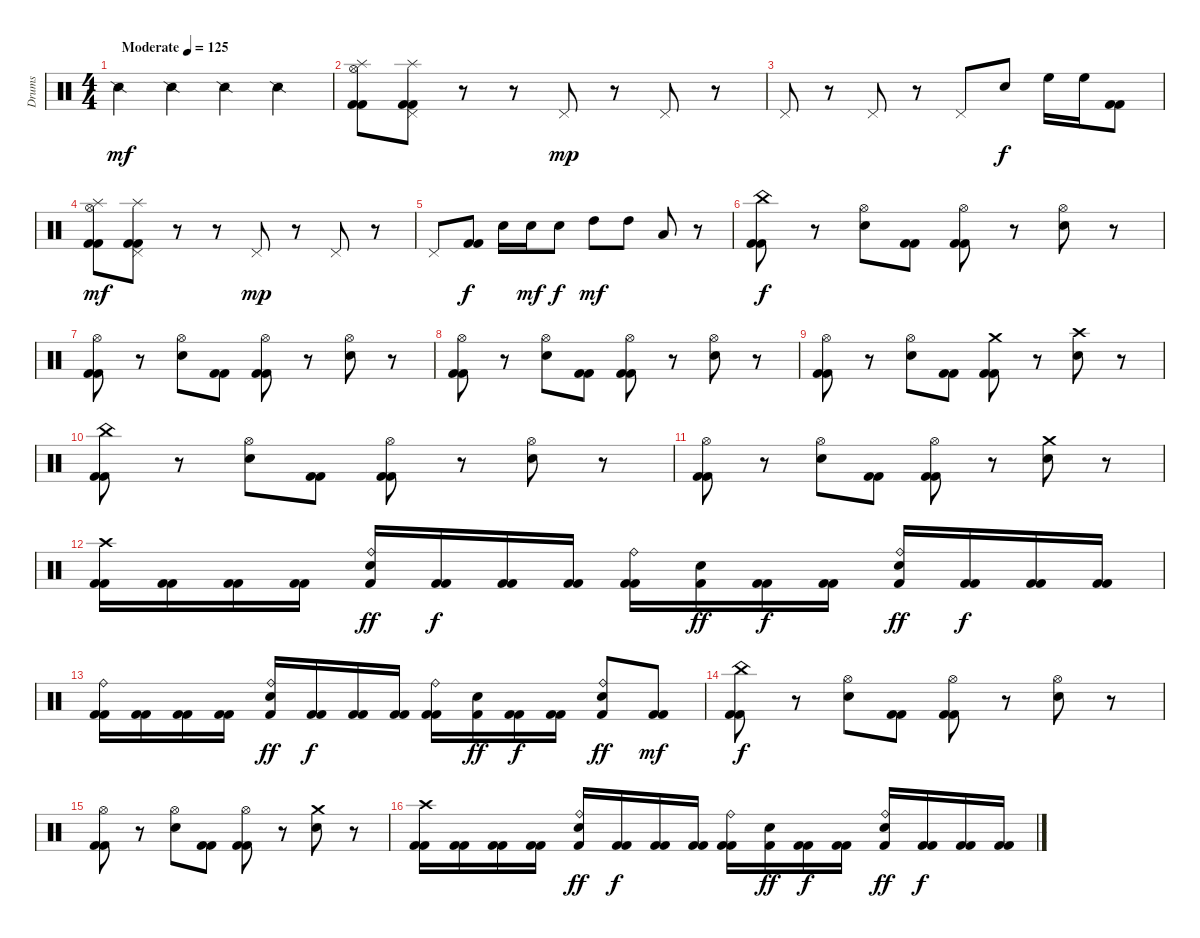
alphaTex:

\track ("Drums" "Drums") {instrument percussion}
\staff {score}
\articulation defaults
\ts (4 4)
\tempo (125 "Moderate")
\clef neutral
\ks c "Snare (side stick) 2".4{dy mf} "Snare (side stick) 2".4 "Snare (side stick) 2".4 "Snare (side stick) 2".4
|
("Hi-Hat (open)" "Splash (hit)" "Kick (hit) 2" "Kick (hit) 2").8 ("Pedal Hi-Hat (hit)" "Splash (hit)" "Kick (hit) 2" "Kick (hit) 2").8 r.8 r.8 "Pedal Hi-Hat (hit)".8{dy mp} r.8 "Pedal Hi-Hat (hit)".8 r.8 |
"Pedal Hi-Hat (hit)".8 r.8 "Pedal Hi-Hat (hit)".8 r.8 "Pedal Hi-Hat (hit)".8 "Snare (hit) 2".8{dy f} "High Floor Tom (hit)".16 "High Floor Tom (hit)".16 ("Kick (hit) 2" "Kick (hit) 2").8 |
("Hi-Hat (open)" "Splash (hit)" "Kick (hit) 2" "Kick (hit) 2").8{dy mf} ("Pedal Hi-Hat (hit)" "Splash (hit)" "Kick (hit) 2" "Kick (hit) 2").8 r.8 r.8 "Pedal Hi-Hat (hit)".8{dy mp} r.8 "Pedal Hi-Hat (hit)".8 r.8 |
"Pedal Hi-Hat (hit)".8 ("Kick (hit) 2" "Kick (hit) 2").8{dy f} "Snare (hit) 2".16 "Snare (hit) 2".16{dy mf} "Snare (hit) 2".8{dy f} "High Tom (hit)".8{dy mf} "High Tom (hit)".8 "Low Tom (hit)".8 r.8 |
("China (hit)" "Kick (hit) 2" "Kick (hit) 2").8{dy f} r.8 ("Hi-Hat (open)" "Snare (hit) 2").8 ("Kick (hit) 2" "Kick (hit) 2").8 ("Hi-Hat (open)" "Kick (hit) 2" "Kick (hit) 2").8 r.8 ("Hi-Hat (open)" "Snare (hit) 2").8 r.8 |
("Hi-Hat (open)" "Kick (hit) 2" "Kick (hit) 2").8 r.8 ("Hi-Hat (open)" "Snare (hit) 2").8 ("Kick (hit) 2" "Kick (hit) 2").8 ("Hi-Hat (open)" "Kick (hit) 2" "Kick (hit) 2").8 r.8 ("Hi-Hat (open)" "Snare (hit) 2").8 r.8 |
("Hi-Hat (open)" "Kick (hit) 2" "Kick (hit) 2").8 r.8 ("Hi-Hat (open)" "Snare (hit) 2").8 ("Kick (hit) 2" "Kick (hit) 2").8 ("Hi-Hat (open)" "Kick (hit) 2" "Kick (hit) 2").8 r.8 ("Hi-Hat (open)" "Snare (hit) 2").8 r.8 |
("Hi-Hat (open)" "Kick (hit) 2" "Kick (hit) 2").8 r.8 ("Hi-Hat (open)" "Snare (hit) 2").8 ("Kick (hit) 2" "Kick (hit) 2").8 ("Crash medium (hit)" "Kick (hit) 2" "Kick (hit) 2").8 r.8 ("Crash high (hit)" "Snare (hit) 2").8 r.8 |
("China (hit)" "Kick (hit) 2" "Kick (hit) 2").8 r.8 ("Hi-Hat (open)" "Snare (hit) 2").8 ("Kick (hit) 2" "Kick (hit) 2").8 ("Hi-Hat (open)" "Kick (hit) 2" "Kick (hit) 2").8 r.8 ("Hi-Hat (open)" "Snare (hit) 2").8 r.8 |
("Hi-Hat (open)" "Kick (hit) 2" "Kick (hit) 2").8 r.8 ("Hi-Hat (open)" "Snare (hit) 2").8 ("Kick (hit) 2" "Kick (hit) 2").8 ("Hi-Hat (open)" "Kick (hit) 2" "Kick (hit) 2").8 r.8 ("Crash medium (hit)" "Snare (hit) 2").8 r.8 |
("Crash high (hit)" "Kick (hit) 2" "Kick (hit) 2").16 ("Kick (hit) 2" "Kick (hit) 2").16 ("Kick (hit) 2" "Kick (hit) 2").16 ("Kick (hit) 2" "Kick (hit) 2").16 ("Ride (bell)" "Electric Snare (hit)" "Kick (hit) 2").16{dy ff} ("Kick (hit) 2" "Kick (hit) 2").16{dy f} ("Kick (hit) 2" "Kick (hit) 2").16 ("Kick (hit) 2" "Kick (hit) 2").16 ("Ride (bell)" "Kick (hit) 2" "Kick (hit) 2").16 ("Electric Snare (hit)" "Kick (hit) 2").16{dy ff} ("Kick (hit) 2" "Kick (hit) 2").16{dy f} ("Kick (hit) 2" "Kick (hit) 2").16 ("Ride (bell)" "Electric Snare (hit)" "Kick (hit) 2").16{dy ff} ("Kick (hit) 2" "Kick (hit) 2").16{dy f} ("Kick (hit) 2" "Kick (hit) 2").16 ("Kick (hit) 2" "Kick (hit) 2").16 |
("Ride (bell)" "Kick (hit) 2" "Kick (hit) 2").16 ("Kick (hit) 2" "Kick (hit) 2").16 ("Kick (hit) 2" "Kick (hit) 2").16 ("Kick (hit) 2" "Kick (hit) 2").16 ("Ride (bell)" "Electric Snare (hit)" "Kick (hit) 2").16{dy ff} ("Kick (hit) 2" "Kick (hit) 2").16{dy f} ("Kick (hit) 2" "Kick (hit) 2").16 ("Kick (hit) 2" "Kick (hit) 2").16 ("Ride (bell)" "Kick (hit) 2" "Kick (hit) 2").16 ("Electric Snare (hit)" "Kick (hit) 2").16{dy ff} ("Kick (hit) 2" "Kick (hit) 2").16{dy f} ("Kick (hit) 2" "Kick (hit) 2").16 ("Ride (bell)" "Electric Snare (hit)" "Kick (hit) 2").8{dy ff} ("Kick (hit) 2" "Kick (hit) 2").8{dy mf} |
("China (hit)" "Kick (hit) 2" "Kick (hit) 2").8{dy f} r.8 ("Hi-Hat (open)" "Snare (hit) 2").8 ("Kick (hit) 2" "Kick (hit) 2").8 ("Hi-Hat (open)" "Kick (hit) 2" "Kick (hit) 2").8 r.8 ("Hi-Hat (open)" "Snare (hit) 2").8 r.8 |
("Hi-Hat (open)" "Kick (hit) 2" "Kick (hit) 2").8 r.8 ("Hi-Hat (open)" "Snare (hit) 2").8 ("Kick (hit) 2" "Kick (hit) 2").8 ("Hi-Hat (open)" "Kick (hit) 2" "Kick (hit) 2").8 r.8 ("Crash medium (hit)" "Snare (hit) 2").8 r.8 |
("Crash high (hit)" "Kick (hit) 2" "Kick (hit) 2").16 ("Kick (hit) 2" "Kick (hit) 2").16 ("Kick (hit) 2" "Kick (hit) 2").16 ("Kick (hit) 2" "Kick (hit) 2").16 ("Ride (bell)" "Electric Snare (hit)" "Kick (hit) 2").16{dy ff} ("Kick (hit) 2" "Kick (hit) 2").16{dy f} ("Kick (hit) 2" "Kick (hit) 2").16 ("Kick (hit) 2" "Kick (hit) 2").16 ("Ride (bell)" "Kick (hit) 2" "Kick (hit) 2").16 ("Electric Snare (hit)" "Kick (hit) 2").16{dy ff} ("Kick (hit) 2" "Kick (hit) 2").16{dy f} ("Kick (hit) 2" "Kick (hit) 2").16 ("Ride (bell)" "Electric Snare (hit)" "Kick (hit) 2").16{dy ff} ("Kick (hit) 2" "Kick (hit) 2").16{dy f} ("Kick (hit) 2" "Kick (hit) 2").16 ("Kick (hit) 2" "Kick (hit) 2").16
